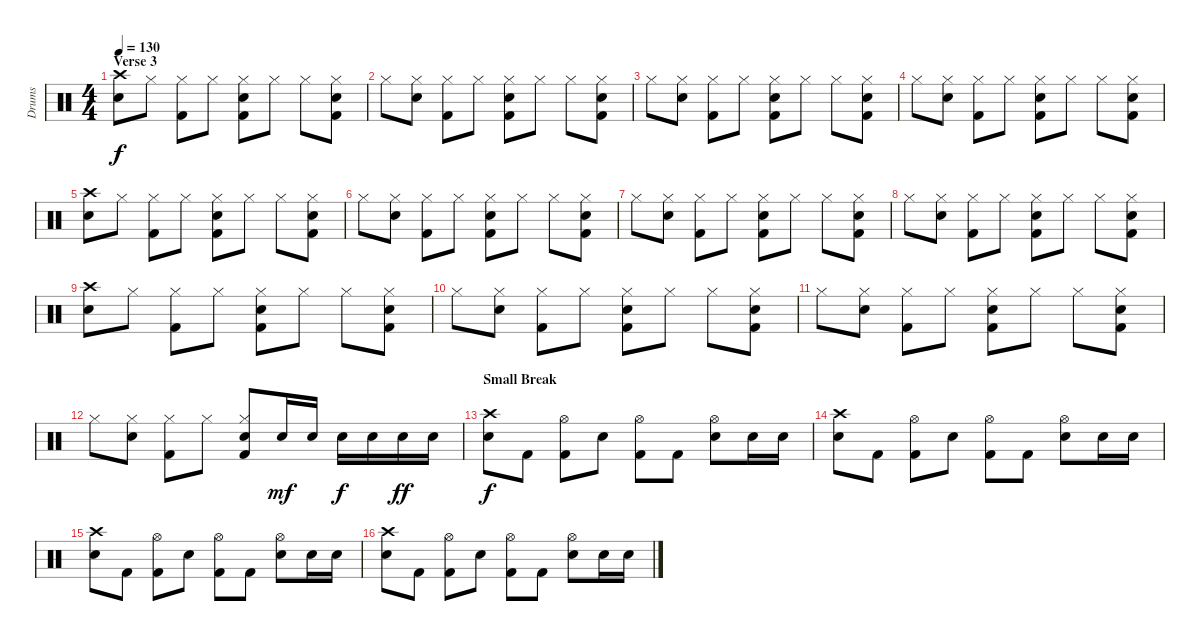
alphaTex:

\track ("Drums" "Drums") {instrument percussion}
\staff {score}
\articulation defaults
\ts (4 4)
\section ("" "Verse 3")
\tempo 130
\clef neutral
\ks c
("Crash high (hit)" "Electric Snare (hit)").8{dy f} "Hi-Hat (closed)".8 ("Hi-Hat (closed)" "Kick (hit) 2").8 "Hi-Hat (closed)".8 ("Hi-Hat (closed)" "Electric Snare (hit)" "Kick (hit) 2").8 "Hi-Hat (closed)".8 "Hi-Hat (closed)".8 ("Hi-Hat (closed)" "Electric Snare (hit)" "Kick (hit) 2").8 |
"Hi-Hat (closed)".8 ("Hi-Hat (closed)" "Electric Snare (hit)").8 ("Hi-Hat (closed)" "Kick (hit) 2").8 "Hi-Hat (closed)".8 ("Hi-Hat (closed)" "Electric Snare (hit)" "Kick (hit) 2").8 "Hi-Hat (closed)".8 "Hi-Hat (closed)".8 ("Hi-Hat (closed)" "Electric Snare (hit)" "Kick (hit) 2").8 |
"Hi-Hat (closed)".8 ("Hi-Hat (closed)" "Electric Snare (hit)").8 ("Hi-Hat (closed)" "Kick (hit) 2").8 "Hi-Hat (closed)".8 ("Hi-Hat (closed)" "Electric Snare (hit)" "Kick (hit) 2").8 "Hi-Hat (closed)".8 "Hi-Hat (closed)".8 ("Hi-Hat (closed)" "Electric Snare (hit)" "Kick (hit) 2").8 |
"Hi-Hat (closed)".8 ("Hi-Hat (closed)" "Electric Snare (hit)").8 ("Hi-Hat (closed)" "Kick (hit) 2").8 "Hi-Hat (closed)".8 ("Hi-Hat (closed)" "Electric Snare (hit)" "Kick (hit) 2").8 "Hi-Hat (closed)".8 "Hi-Hat (closed)".8 ("Hi-Hat (closed)" "Electric Snare (hit)" "Kick (hit) 2").8 |
("Crash high (hit)" "Electric Snare (hit)").8 "Hi-Hat (closed)".8 ("Hi-Hat (closed)" "Kick (hit) 2").8 "Hi-Hat (closed)".8 ("Hi-Hat (closed)" "Electric Snare (hit)" "Kick (hit) 2").8 "Hi-Hat (closed)".8 "Hi-Hat (closed)".8 ("Hi-Hat (closed)" "Electric Snare (hit)" "Kick (hit) 2").8 |
"Hi-Hat (closed)".8 ("Hi-Hat (closed)" "Electric Snare (hit)").8 ("Hi-Hat (closed)" "Kick (hit) 2").8 "Hi-Hat (closed)".8 ("Hi-Hat (closed)" "Electric Snare (hit)" "Kick (hit) 2").8 "Hi-Hat (closed)".8 "Hi-Hat (closed)".8 ("Hi-Hat (closed)" "Electric Snare (hit)" "Kick (hit) 2").8 |
"Hi-Hat (closed)".8 ("Hi-Hat (closed)" "Electric Snare (hit)").8 ("Hi-Hat (closed)" "Kick (hit) 2").8 "Hi-Hat (closed)".8 ("Hi-Hat (closed)" "Electric Snare (hit)" "Kick (hit) 2").8 "Hi-Hat (closed)".8 "Hi-Hat (closed)".8 ("Hi-Hat (closed)" "Electric Snare (hit)" "Kick (hit) 2").8 |
"Hi-Hat (closed)".8 ("Hi-Hat (closed)" "Electric Snare (hit)").8 ("Hi-Hat (closed)" "Kick (hit) 2").8 "Hi-Hat (closed)".8 ("Hi-Hat (closed)" "Electric Snare (hit)" "Kick (hit) 2").8 "Hi-Hat (closed)".8 "Hi-Hat (closed)".8 ("Hi-Hat (closed)" "Electric Snare (hit)" "Kick (hit) 2").8 |
("Crash high (hit)" "Electric Snare (hit)").8 "Hi-Hat (closed)".8 ("Hi-Hat (closed)" "Kick (hit) 2").8 "Hi-Hat (closed)".8 ("Hi-Hat (closed)" "Electric Snare (hit)" "Kick (hit) 2").8 "Hi-Hat (closed)".8 "Hi-Hat (closed)".8 ("Hi-Hat (closed)" "Electric Snare (hit)" "Kick (hit) 2").8 |
"Hi-Hat (closed)".8 ("Hi-Hat (closed)" "Electric Snare (hit)").8 ("Hi-Hat (closed)" "Kick (hit) 2").8 "Hi-Hat (closed)".8 ("Hi-Hat (closed)" "Electric Snare (hit)" "Kick (hit) 2").8 "Hi-Hat (closed)".8 "Hi-Hat (closed)".8 ("Hi-Hat (closed)" "Electric Snare (hit)" "Kick (hit) 2").8 |
"Hi-Hat (closed)".8 ("Hi-Hat (closed)" "Electric Snare (hit)").8 ("Hi-Hat (closed)" "Kick (hit) 2").8 "Hi-Hat (closed)".8 ("Hi-Hat (closed)" "Electric Snare (hit)" "Kick (hit) 2").8 "Hi-Hat (closed)".8 "Hi-Hat (closed)".8 ("Hi-Hat (closed)" "Electric Snare (hit)" "Kick (hit) 2").8 |
"Hi-Hat (closed)".8 ("Hi-Hat (closed)" "Electric Snare (hit)").8 ("Hi-Hat (closed)" "Kick (hit) 2").8 "Hi-Hat (closed)".8 ("Hi-Hat (closed)" "Electric Snare (hit)" "Kick (hit) 2").8 "Electric Snare (hit)".16{dy mf} "Electric Snare (hit)".16 "Electric Snare (hit)".16{dy f} "Electric Snare (hit)".16 "Electric Snare (hit)".16{dy ff} "Electric Snare (hit)".16 |
\section ("" "Small Break")
("Crash high (hit)" "Electric Snare (hit)").8{dy f} "Kick (hit) 2".8 ("Hi-Hat (open)" "Kick (hit) 2").8 "Electric Snare (hit)".8 ("Hi-Hat (open)" "Kick (hit) 2").8 "Kick (hit) 2".8 ("Hi-Hat (open)" "Electric Snare (hit)").8 "Electric Snare (hit)".16 "Electric Snare (hit)".16 |
("Crash high (hit)" "Electric Snare (hit)").8 "Kick (hit) 2".8 ("Hi-Hat (open)" "Kick (hit) 2").8 "Electric Snare (hit)".8 ("Hi-Hat (open)" "Kick (hit) 2").8 "Kick (hit) 2".8 ("Hi-Hat (open)" "Electric Snare (hit)").8 "Electric Snare (hit)".16 "Electric Snare (hit)".16 |
("Crash high (hit)" "Electric Snare (hit)").8 "Kick (hit) 2".8 ("Hi-Hat (open)" "Kick (hit) 2").8 "Electric Snare (hit)".8 ("Hi-Hat (open)" "Kick (hit) 2").8 "Kick (hit) 2".8 ("Hi-Hat (open)" "Electric Snare (hit)").8 "Electric Snare (hit)".16 "Electric Snare (hit)".16 |
("Crash high (hit)" "Electric Snare (hit)").8 "Kick (hit) 2".8 ("Hi-Hat (open)" "Kick (hit) 2").8 "Electric Snare (hit)".8 ("Hi-Hat (open)" "Kick (hit) 2").8 "Kick (hit) 2".8 ("Hi-Hat (open)" "Electric Snare (hit)").8 "Electric Snare (hit)".16 "Electric Snare (hit)".16
